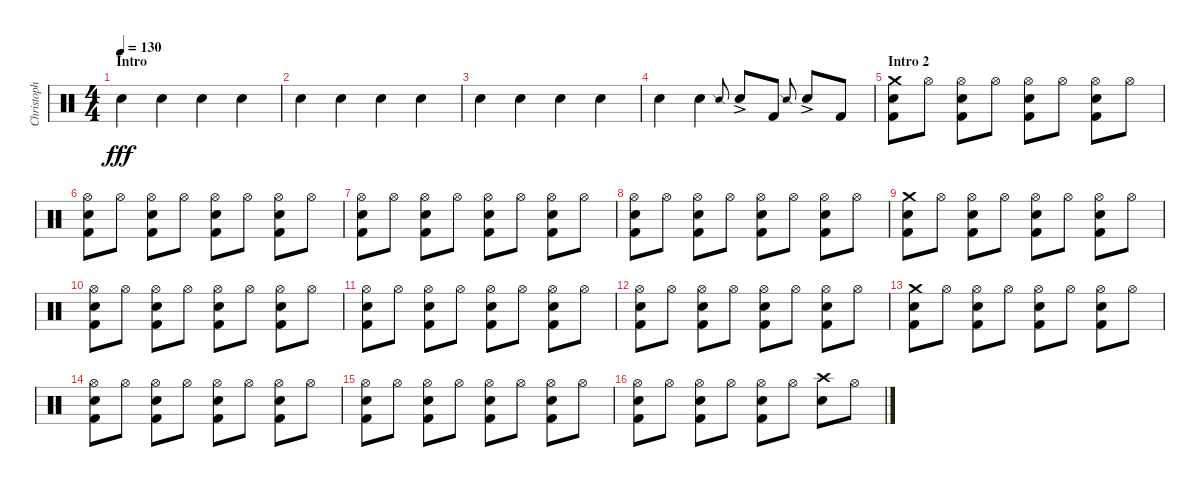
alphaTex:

\track ("Christoph Schneider" "Christoph ") {instrument percussion}
\staff {score}
\articulation defaults
\ts (4 4)
\section ("" "Intro")
\tempo 130
\clef neutral
\ks c "Hand Clap (hit)".4{dy fff} "Hand Clap (hit)".4 "Hand Clap (hit)".4 "Hand Clap (hit)".4
|
"Hand Clap (hit)".4 "Hand Clap (hit)".4 "Hand Clap (hit)".4 "Hand Clap (hit)".4 |
"Hand Clap (hit)".4 "Hand Clap (hit)".4 "Hand Clap (hit)".4 "Hand Clap (hit)".4 |
"Hand Clap (hit)".4 "Hand Clap (hit)".4 "Snare (side stick) 2".8{gr onbeat} "Snare (hit) 2"{ac}.8 "Kick (hit) 2".8 "Snare (side stick) 2".8{gr onbeat} "Snare (hit) 2"{ac}.8 "Kick (hit) 2".8 |
\section ("" "Intro 2")
("Crash medium (hit)" "Snare (hit) 2" "Kick (hit) 2").8 "Hi-Hat (open)".8 ("Hi-Hat (open)" "Snare (hit) 2" "Kick (hit) 2").8 "Hi-Hat (open)".8 ("Hi-Hat (open)" "Snare (hit) 2" "Kick (hit) 2").8 "Hi-Hat (open)".8 ("Hi-Hat (open)" "Snare (hit) 2" "Kick (hit) 2").8 "Hi-Hat (open)".8 |
("Hi-Hat (open)" "Snare (hit) 2" "Kick (hit) 2").8 "Hi-Hat (open)".8 ("Hi-Hat (open)" "Snare (hit) 2" "Kick (hit) 2").8 "Hi-Hat (open)".8 ("Hi-Hat (open)" "Snare (hit) 2" "Kick (hit) 2").8 "Hi-Hat (open)".8 ("Hi-Hat (open)" "Snare (hit) 2" "Kick (hit) 2").8 "Hi-Hat (open)".8 |
("Hi-Hat (open)" "Snare (hit) 2" "Kick (hit) 2").8 "Hi-Hat (open)".8 ("Hi-Hat (open)" "Snare (hit) 2" "Kick (hit) 2").8 "Hi-Hat (open)".8 ("Hi-Hat (open)" "Snare (hit) 2" "Kick (hit) 2").8 "Hi-Hat (open)".8 ("Hi-Hat (open)" "Snare (hit) 2" "Kick (hit) 2").8 "Hi-Hat (open)".8 |
("Hi-Hat (open)" "Snare (hit) 2" "Kick (hit) 2").8 "Hi-Hat (open)".8 ("Hi-Hat (open)" "Snare (hit) 2" "Kick (hit) 2").8 "Hi-Hat (open)".8 ("Hi-Hat (open)" "Snare (hit) 2" "Kick (hit) 2").8 "Hi-Hat (open)".8 ("Hi-Hat (open)" "Snare (hit) 2" "Kick (hit) 2").8 "Hi-Hat (open)".8 |
("Crash medium (hit)" "Snare (hit) 2" "Kick (hit) 2").8 "Hi-Hat (open)".8 ("Hi-Hat (open)" "Snare (hit) 2" "Kick (hit) 2").8 "Hi-Hat (open)".8 ("Hi-Hat (open)" "Snare (hit) 2" "Kick (hit) 2").8 "Hi-Hat (open)".8 ("Hi-Hat (open)" "Snare (hit) 2" "Kick (hit) 2").8 "Hi-Hat (open)".8 |
("Hi-Hat (open)" "Snare (hit) 2" "Kick (hit) 2").8 "Hi-Hat (open)".8 ("Hi-Hat (open)" "Snare (hit) 2" "Kick (hit) 2").8 "Hi-Hat (open)".8 ("Hi-Hat (open)" "Snare (hit) 2" "Kick (hit) 2").8 "Hi-Hat (open)".8 ("Hi-Hat (open)" "Snare (hit) 2" "Kick (hit) 2").8 "Hi-Hat (open)".8 |
("Hi-Hat (open)" "Snare (hit) 2" "Kick (hit) 2").8 "Hi-Hat (open)".8 ("Hi-Hat (open)" "Snare (hit) 2" "Kick (hit) 2").8 "Hi-Hat (open)".8 ("Hi-Hat (open)" "Snare (hit) 2" "Kick (hit) 2").8 "Hi-Hat (open)".8 ("Hi-Hat (open)" "Snare (hit) 2" "Kick (hit) 2").8 "Hi-Hat (open)".8 |
("Hi-Hat (open)" "Snare (hit) 2" "Kick (hit) 2").8 "Hi-Hat (open)".8 ("Hi-Hat (open)" "Snare (hit) 2" "Kick (hit) 2").8 "Hi-Hat (open)".8 ("Hi-Hat (open)" "Snare (hit) 2" "Kick (hit) 2").8 "Hi-Hat (open)".8 ("Hi-Hat (open)" "Snare (hit) 2" "Kick (hit) 2").8 "Hi-Hat (open)".8 |
("Crash medium (hit)" "Snare (hit) 2" "Kick (hit) 2").8 "Hi-Hat (open)".8 ("Hi-Hat (open)" "Snare (hit) 2" "Kick (hit) 2").8 "Hi-Hat (open)".8 ("Hi-Hat (open)" "Snare (hit) 2" "Kick (hit) 2").8 "Hi-Hat (open)".8 ("Hi-Hat (open)" "Snare (hit) 2" "Kick (hit) 2").8 "Hi-Hat (open)".8 |
("Hi-Hat (open)" "Snare (hit) 2" "Kick (hit) 2").8 "Hi-Hat (open)".8 ("Hi-Hat (open)" "Snare (hit) 2" "Kick (hit) 2").8 "Hi-Hat (open)".8 ("Hi-Hat (open)" "Snare (hit) 2" "Kick (hit) 2").8 "Hi-Hat (open)".8 ("Hi-Hat (open)" "Snare (hit) 2" "Kick (hit) 2").8 "Hi-Hat (open)".8 |
("Hi-Hat (open)" "Snare (hit) 2" "Kick (hit) 2").8 "Hi-Hat (open)".8 ("Hi-Hat (open)" "Snare (hit) 2" "Kick (hit) 2").8 "Hi-Hat (open)".8 ("Hi-Hat (open)" "Snare (hit) 2" "Kick (hit) 2").8 "Hi-Hat (open)".8 ("Hi-Hat (open)" "Snare (hit) 2" "Kick (hit) 2").8 "Hi-Hat (open)".8 |
("Hi-Hat (open)" "Snare (hit) 2" "Kick (hit) 2").8 "Hi-Hat (open)".8 ("Hi-Hat (open)" "Snare (hit) 2" "Kick (hit) 2").8 "Hi-Hat (open)".8 ("Hi-Hat (open)" "Snare (hit) 2" "Kick (hit) 2").8 "Hi-Hat (open)".8 ("Crash high (hit)" "Snare (hit) 2").8 "Hi-Hat (open)".8
